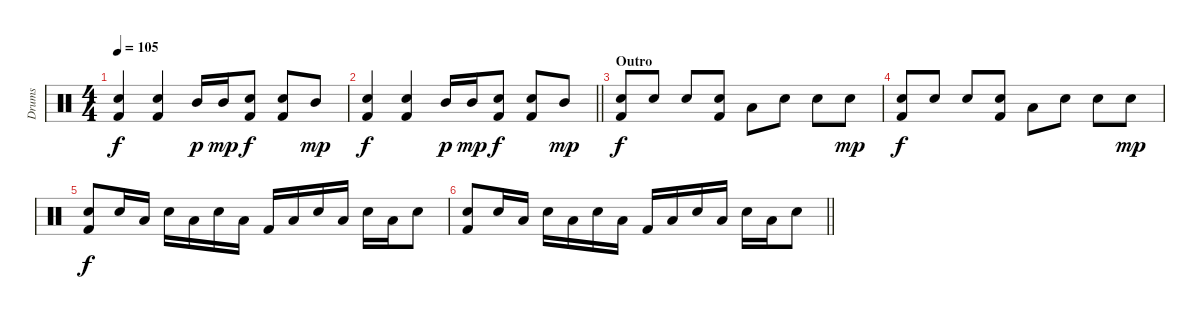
\track ("Drums" "Drums") {instrument percussion}
\staff {score}
\articulation defaults
\ts (4 4)
\tempo 105
\clef neutral
\ks c
("Snare (hit) 2" "Kick (hit) 2").4{dy f volume 5} ("Snare (hit) 2" "Kick (hit) 2").4 "Mid Tom (hit)".16{dy p} "Mid Tom (hit)".16{dy mp} ("Snare (hit) 2" "Kick (hit) 2").8{dy f} ("Snare (hit) 2" "Kick (hit) 2").8 "Mid Tom (hit)".8{dy mp} |
\barLineRight lightlight
("Snare (hit) 2" "Kick (hit) 2").4{dy f volume 1} ("Snare (hit) 2" "Kick (hit) 2").4 "Mid Tom (hit)".16{dy p} "Mid Tom (hit)".16{dy mp} ("Snare (hit) 2" "Kick (hit) 2").8{dy f} ("Snare (hit) 2" "Kick (hit) 2").8 "Mid Tom (hit)".8{dy mp} |
\section ("" "Outro")
("Snare (hit) 2" "Kick (hit) 2").8{dy f} "Snare (hit) 2".8 "Snare (hit) 2".8 ("Snare (hit) 2" "Kick (hit) 2").8 "Low Floor Tom (hit)".8 "Snare (hit) 2".8 "Snare (hit) 2".8 "Snare (hit) 2".8{dy mp} |
("Snare (hit) 2" "Kick (hit) 2").8{dy f} "Snare (hit) 2".8 "Snare (hit) 2".8 ("Snare (hit) 2" "Kick (hit) 2").8 "Low Floor Tom (hit)".8 "Snare (hit) 2".8 "Snare (hit) 2".8 "Snare (hit) 2".8{dy mp} |
("Snare (hit) 2" "Kick (hit) 2").8{dy f} "Snare (hit) 2".16 "Low Floor Tom (hit)".16 "Snare (hit) 2".16 "Low Floor Tom (hit)".16 "Snare (hit) 2".16 "Low Floor Tom (hit)".16 "Kick (hit) 2".16 "Low Floor Tom (hit)".16 "Snare (hit) 2".16 "Low Floor Tom (hit)".16 "Snare (hit) 2".16 "Low Floor Tom (hit)".16 "Snare (hit) 2".8 |
\barLineRight lightlight
("Snare (hit) 2" "Kick (hit) 2").8 "Snare (hit) 2".16 "Low Floor Tom (hit)".16 "Snare (hit) 2".16 "Low Floor Tom (hit)".16 "Snare (hit) 2".16 "Low Floor Tom (hit)".16 "Kick (hit) 2".16 "Low Floor Tom (hit)".16 "Snare (hit) 2".16 "Low Floor Tom (hit)".16 "Snare (hit) 2".16 "Low Floor Tom (hit)".16 "Snare (hit) 2".8
